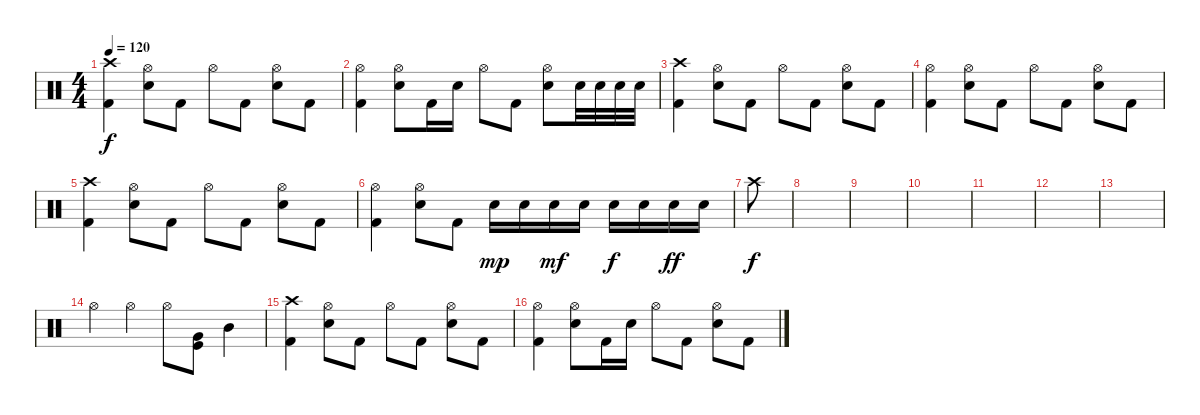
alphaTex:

\track "" {instrument percussion}
\staff {score}
\articulation defaults
\ts (4 4)
\tempo 120
\clef neutral
\ks c
("Crash high (hit)" "Kick (hit) 2").4{dy f} ("Hi-Hat (open)" "Snare (hit) 2").8 "Kick (hit) 2".8 "Hi-Hat (open)".8 "Kick (hit) 2".8 ("Hi-Hat (open)" "Snare (hit) 2").8 "Kick (hit) 2".8 |
("Hi-Hat (open)" "Kick (hit) 2").4 ("Hi-Hat (open)" "Snare (hit) 2").8 "Kick (hit) 2".16 "Snare (hit) 2".16 "Hi-Hat (open)".8 "Kick (hit) 2".8 ("Hi-Hat (open)" "Snare (hit) 2").8 "Snare (hit) 2".32 "Snare (hit) 2".32 "Snare (hit) 2".32 "Snare (hit) 2".32 |
("Crash high (hit)" "Kick (hit) 2").4 ("Hi-Hat (open)" "Snare (hit) 2").8 "Kick (hit) 2".8 "Hi-Hat (open)".8 "Kick (hit) 2".8 ("Hi-Hat (open)" "Snare (hit) 2").8 "Kick (hit) 2".8 |
("Hi-Hat (open)" "Kick (hit) 2").4 ("Hi-Hat (open)" "Snare (hit) 2").8 "Kick (hit) 2".8 "Hi-Hat (open)".8 "Kick (hit) 2".8 ("Hi-Hat (open)" "Snare (hit) 2").8 "Kick (hit) 2".8 |
("Crash high (hit)" "Kick (hit) 2").4 ("Hi-Hat (open)" "Snare (hit) 2").8 "Kick (hit) 2".8 "Hi-Hat (open)".8 "Kick (hit) 2".8 ("Hi-Hat (open)" "Snare (hit) 2").8 "Kick (hit) 2".8 |
("Hi-Hat (open)" "Kick (hit) 2").4 ("Hi-Hat (open)" "Snare (hit) 2").8 "Kick (hit) 2".8 "Snare (hit) 2".16{dy mp} "Snare (hit) 2".16 "Snare (hit) 2".16{dy mf} "Snare (hit) 2".16 "Snare (hit) 2".16{dy f} "Snare (hit) 2".16 "Snare (hit) 2".16{dy ff} "Snare (hit) 2".16 |
"Crash high (hit)".8{dy f} |
|
|
|
|
|
|
"Hi-Hat (open)".4 "Hi-Hat (open)".4 "Hi-Hat (open)".8 ("Kick (hit)" "Very Low Tom (hit)").8{bd 240} "Mid Tom (hit)".4 |
("Crash high (hit)" "Kick (hit) 2").4 ("Hi-Hat (open)" "Snare (hit) 2").8 "Kick (hit) 2".8 "Hi-Hat (open)".8 "Kick (hit) 2".8 ("Hi-Hat (open)" "Snare (hit) 2").8 "Kick (hit) 2".8 |
("Hi-Hat (open)" "Kick (hit) 2").4 ("Hi-Hat (open)" "Snare (hit) 2").8 "Kick (hit) 2".16 "Snare (hit) 2".16 "Hi-Hat (open)".8 "Kick (hit) 2".8 ("Hi-Hat (open)" "Snare (hit) 2").8 "Kick (hit) 2".8
